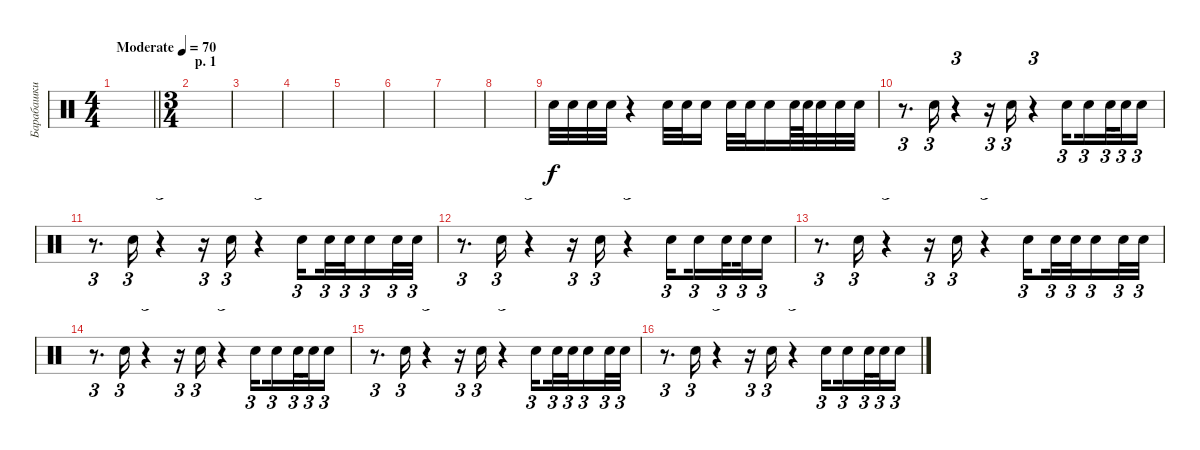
\track ("Барабашки Middle" "Барабашки ") {instrument percussion}
\staff {score}
\articulation defaults
\ts (4 4)
\tempo (70 "Moderate")
\clef neutral
\barLineRight lightlight
\ks c
|
\ts (3 4)
\section ("" "p. 1")
|
|
|
|
|
|
|
"Electric Snare (hit)".32 "Electric Snare (hit)".32 "Electric Snare (hit)".32 "Electric Snare (hit)".32 r.4 "Electric Snare (hit)".32 "Electric Snare (hit)".32 "Electric Snare (hit)".16 "Electric Snare (hit)".32 "Electric Snare (hit)".32 "Electric Snare (hit)".16 "Snare (hit) 2".64 "Snare (hit) 2".64 "Electric Snare (hit)".32 "Electric Snare (hit)".32 "Electric Snare (hit)".32 |
r.8{d tu (3 2)} "Snare (hit) 2".16{tu (3 2)} r.4{tu (3 2)} r.16{tu (3 2)} "Snare (hit) 2".16{tu (3 2)} r.4{tu (3 2)} "Electric Snare (hit)".16{tu (3 2) beam splitsecondary} "Snare (hit) 2".16{tu (3 2)} "Snare (hit) 2".32{tu (3 2) beam splitsecondary} "Snare (hit) 2".32{tu (3 2)} "Electric Snare (hit)".16{tu (3 2)} |
r.8{d tu (3 2)} "Snare (hit) 2".16{tu (3 2)} r.4{tu (3 2)} r.16{tu (3 2)} "Snare (hit) 2".16{tu (3 2)} r.4{tu (3 2)} "Electric Snare (hit)".16{tu (3 2) beam splitsecondary} "Electric Snare (hit)".32{tu (3 2)} "Electric Snare (hit)".32{tu (3 2)} "Electric Snare (hit)".16{tu (3 2)} "Electric Snare (hit)".32{tu (3 2)} "Electric Snare (hit)".32{tu (3 2)} |
r.8{d tu (3 2)} "Snare (hit) 2".16{tu (3 2)} r.4{tu (3 2)} r.16{tu (3 2)} "Snare (hit) 2".16{tu (3 2)} r.4{tu (3 2)} "Electric Snare (hit)".16{tu (3 2) beam splitsecondary} "Snare (hit) 2".16{tu (3 2)} "Snare (hit) 2".32{tu (3 2) beam splitsecondary} "Snare (hit) 2".32{tu (3 2)} "Electric Snare (hit)".16{tu (3 2)} |
r.8{d tu (3 2)} "Snare (hit) 2".16{tu (3 2)} r.4{tu (3 2)} r.16{tu (3 2)} "Snare (hit) 2".16{tu (3 2)} r.4{tu (3 2)} "Electric Snare (hit)".16{tu (3 2) beam splitsecondary} "Electric Snare (hit)".32{tu (3 2)} "Electric Snare (hit)".32{tu (3 2)} "Electric Snare (hit)".16{tu (3 2)} "Electric Snare (hit)".32{tu (3 2)} "Electric Snare (hit)".32{tu (3 2)} |
r.8{d tu (3 2)} "Snare (hit) 2".16{tu (3 2)} r.4{tu (3 2)} r.16{tu (3 2)} "Snare (hit) 2".16{tu (3 2)} r.4{tu (3 2)} "Electric Snare (hit)".16{tu (3 2) beam splitsecondary} "Snare (hit) 2".16{tu (3 2)} "Snare (hit) 2".32{tu (3 2) beam splitsecondary} "Snare (hit) 2".32{tu (3 2)} "Electric Snare (hit)".16{tu (3 2)} |
r.8{d tu (3 2)} "Snare (hit) 2".16{tu (3 2)} r.4{tu (3 2)} r.16{tu (3 2)} "Snare (hit) 2".16{tu (3 2)} r.4{tu (3 2)} "Electric Snare (hit)".16{tu (3 2) beam splitsecondary} "Electric Snare (hit)".32{tu (3 2)} "Electric Snare (hit)".32{tu (3 2)} "Electric Snare (hit)".16{tu (3 2)} "Electric Snare (hit)".32{tu (3 2)} "Electric Snare (hit)".32{tu (3 2)} |
r.8{d tu (3 2)} "Snare (hit) 2".16{tu (3 2)} r.4{tu (3 2)} r.16{tu (3 2)} "Snare (hit) 2".16{tu (3 2)} r.4{tu (3 2)} "Electric Snare (hit)".16{tu (3 2) beam splitsecondary} "Snare (hit) 2".16{tu (3 2)} "Snare (hit) 2".32{tu (3 2) beam splitsecondary} "Snare (hit) 2".32{tu (3 2)} "Electric Snare (hit)".16{tu (3 2)}
